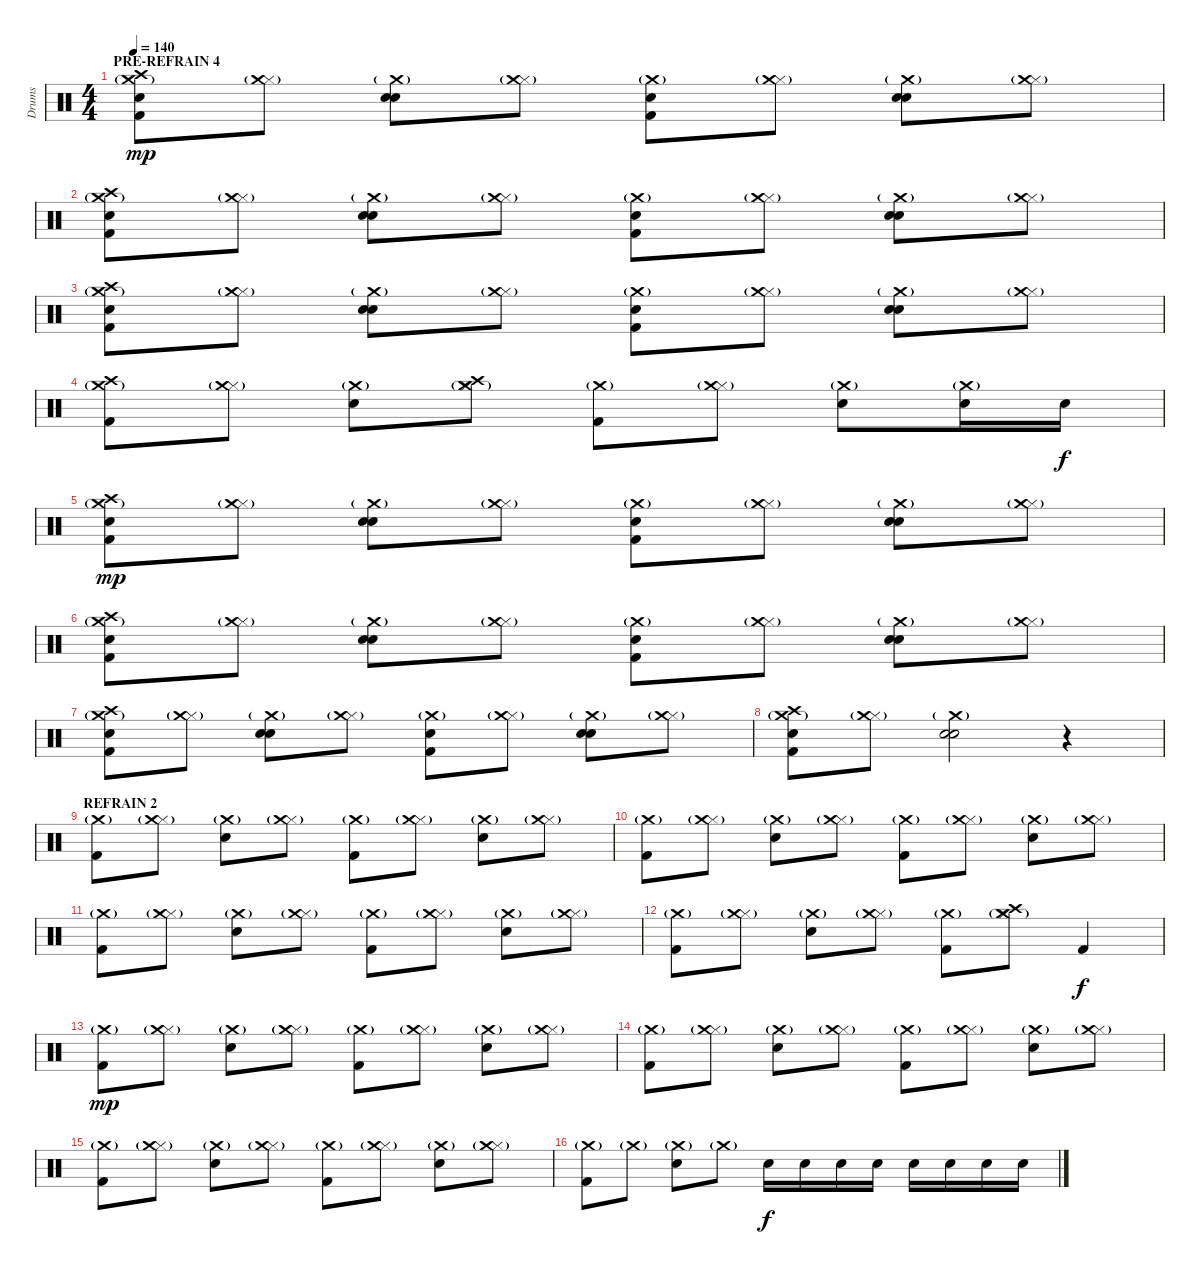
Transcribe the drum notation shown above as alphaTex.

\track ("Drums" "Drums") {instrument percussion}
\staff {score}
\articulation defaults
\ts (4 4)
\section ("" "PRE-REFRAIN 4")
\tempo 140
\clef neutral
\ks c
("Kick (hit) 2" "Hand Clap (hit)" "Crash medium (hit)"{g} "Crash high (hit)").8{dy mp} ("Hi-Hat (closed)" "Crash medium (hit)"{g}).8 ("Electric Snare (hit)" "Hand Clap (hit)" "Crash medium (hit)"{g}).8 ("Hi-Hat (closed)" "Crash medium (hit)"{g}).8 ("Kick (hit) 2" "Hand Clap (hit)" "Crash medium (hit)"{g}).8 ("Hi-Hat (closed)" "Crash medium (hit)"{g}).8 ("Electric Snare (hit)" "Hand Clap (hit)" "Crash medium (hit)"{g}).8 ("Hi-Hat (closed)" "Crash medium (hit)"{g}).8 |
("Kick (hit) 2" "Hand Clap (hit)" "Crash medium (hit)"{g} "Crash high (hit)").8 ("Hi-Hat (closed)" "Crash medium (hit)"{g}).8 ("Electric Snare (hit)" "Hand Clap (hit)" "Crash medium (hit)"{g}).8 ("Hi-Hat (closed)" "Crash medium (hit)"{g}).8 ("Kick (hit) 2" "Hand Clap (hit)" "Crash medium (hit)"{g}).8 ("Hi-Hat (closed)" "Crash medium (hit)"{g}).8 ("Electric Snare (hit)" "Hand Clap (hit)" "Crash medium (hit)"{g}).8 ("Hi-Hat (closed)" "Crash medium (hit)"{g}).8 |
("Kick (hit) 2" "Hand Clap (hit)" "Crash medium (hit)"{g} "Crash high (hit)").8 ("Hi-Hat (closed)" "Crash medium (hit)"{g}).8 ("Electric Snare (hit)" "Hand Clap (hit)" "Crash medium (hit)"{g}).8 ("Hi-Hat (closed)" "Crash medium (hit)"{g}).8 ("Kick (hit) 2" "Hand Clap (hit)" "Crash medium (hit)"{g}).8 ("Hi-Hat (closed)" "Crash medium (hit)"{g}).8 ("Electric Snare (hit)" "Hand Clap (hit)" "Crash medium (hit)"{g}).8 ("Hi-Hat (closed)" "Crash medium (hit)"{g}).8 |
("Kick (hit) 2" "Crash medium (hit)"{g} "Crash high (hit)").8 ("Hi-Hat (closed)" "Crash medium (hit)"{g}).8 ("Electric Snare (hit)" "Crash medium (hit)"{g}).8 ("Hi-Hat (closed)" "Crash medium (hit)"{g} "Crash high (hit)").8 ("Kick (hit) 2" "Crash medium (hit)"{g}).8 ("Hi-Hat (closed)" "Crash medium (hit)"{g}).8 ("Electric Snare (hit)" "Crash medium (hit)"{g}).8 ("Electric Snare (hit)" "Crash medium (hit)"{g}).16 "Electric Snare (hit)".16{dy f} |
("Kick (hit) 2" "Hand Clap (hit)" "Crash medium (hit)"{g} "Crash high (hit)").8{dy mp} ("Hi-Hat (closed)" "Crash medium (hit)"{g}).8 ("Electric Snare (hit)" "Hand Clap (hit)" "Crash medium (hit)"{g}).8 ("Hi-Hat (closed)" "Crash medium (hit)"{g}).8 ("Kick (hit) 2" "Hand Clap (hit)" "Crash medium (hit)"{g}).8 ("Hi-Hat (closed)" "Crash medium (hit)"{g}).8 ("Electric Snare (hit)" "Hand Clap (hit)" "Crash medium (hit)"{g}).8 ("Hi-Hat (closed)" "Crash medium (hit)"{g}).8 |
("Kick (hit) 2" "Hand Clap (hit)" "Crash medium (hit)"{g} "Crash high (hit)").8 ("Hi-Hat (closed)" "Crash medium (hit)"{g}).8 ("Electric Snare (hit)" "Hand Clap (hit)" "Crash medium (hit)"{g}).8 ("Hi-Hat (closed)" "Crash medium (hit)"{g}).8 ("Kick (hit) 2" "Hand Clap (hit)" "Crash medium (hit)"{g}).8 ("Hi-Hat (closed)" "Crash medium (hit)"{g}).8 ("Electric Snare (hit)" "Hand Clap (hit)" "Crash medium (hit)"{g}).8 ("Hi-Hat (closed)" "Crash medium (hit)"{g}).8 |
("Kick (hit) 2" "Hand Clap (hit)" "Crash medium (hit)"{g} "Crash high (hit)").8 ("Hi-Hat (closed)" "Crash medium (hit)"{g}).8 ("Electric Snare (hit)" "Hand Clap (hit)" "Crash medium (hit)"{g}).8 ("Hi-Hat (closed)" "Crash medium (hit)"{g}).8 ("Kick (hit) 2" "Hand Clap (hit)" "Crash medium (hit)"{g}).8 ("Hi-Hat (closed)" "Crash medium (hit)"{g}).8 ("Electric Snare (hit)" "Hand Clap (hit)" "Crash medium (hit)"{g}).8 ("Hi-Hat (closed)" "Crash medium (hit)"{g}).8 |
("Kick (hit) 2" "Hand Clap (hit)" "Crash medium (hit)"{g} "Crash high (hit)").8 ("Hi-Hat (closed)" "Crash medium (hit)"{g}).8 ("Electric Snare (hit)" "Hand Clap (hit)" "Crash medium (hit)"{g}).2 r.4 |
\section ("" "REFRAIN 2")
("Kick (hit) 2" "Crash medium (hit)"{g}).8 ("Hi-Hat (closed)" "Crash medium (hit)"{g}).8 ("Electric Snare (hit)" "Crash medium (hit)"{g}).8 ("Hi-Hat (closed)" "Crash medium (hit)"{g}).8 ("Kick (hit) 2" "Crash medium (hit)"{g}).8 ("Hi-Hat (closed)" "Crash medium (hit)"{g}).8 ("Electric Snare (hit)" "Crash medium (hit)"{g}).8 ("Hi-Hat (closed)" "Crash medium (hit)"{g}).8 |
("Kick (hit) 2" "Crash medium (hit)"{g}).8 ("Hi-Hat (closed)" "Crash medium (hit)"{g}).8 ("Electric Snare (hit)" "Crash medium (hit)"{g}).8 ("Hi-Hat (closed)" "Crash medium (hit)"{g}).8 ("Kick (hit) 2" "Crash medium (hit)"{g}).8 ("Hi-Hat (closed)" "Crash medium (hit)"{g}).8 ("Electric Snare (hit)" "Crash medium (hit)"{g}).8 ("Hi-Hat (closed)" "Crash medium (hit)"{g}).8 |
("Kick (hit) 2" "Crash medium (hit)"{g}).8 ("Hi-Hat (closed)" "Crash medium (hit)"{g}).8 ("Electric Snare (hit)" "Crash medium (hit)"{g}).8 ("Hi-Hat (closed)" "Crash medium (hit)"{g}).8 ("Kick (hit) 2" "Crash medium (hit)"{g}).8 ("Hi-Hat (closed)" "Crash medium (hit)"{g}).8 ("Electric Snare (hit)" "Crash medium (hit)"{g}).8 ("Hi-Hat (closed)" "Crash medium (hit)"{g}).8 |
("Kick (hit) 2" "Crash medium (hit)"{g}).8 ("Hi-Hat (closed)" "Crash medium (hit)"{g}).8 ("Electric Snare (hit)" "Crash medium (hit)"{g}).8 ("Hi-Hat (closed)" "Crash medium (hit)"{g}).8 ("Kick (hit) 2" "Crash medium (hit)"{g}).8 ("Hi-Hat (closed)" "Crash medium (hit)"{g} "Crash high (hit)").8 "Kick (hit) 2".4{dy f} |
("Kick (hit) 2" "Crash medium (hit)"{g}).8{dy mp} ("Hi-Hat (closed)" "Crash medium (hit)"{g}).8 ("Electric Snare (hit)" "Crash medium (hit)"{g}).8 ("Hi-Hat (closed)" "Crash medium (hit)"{g}).8 ("Kick (hit) 2" "Crash medium (hit)"{g}).8 ("Hi-Hat (closed)" "Crash medium (hit)"{g}).8 ("Electric Snare (hit)" "Crash medium (hit)"{g}).8 ("Hi-Hat (closed)" "Crash medium (hit)"{g}).8 |
("Kick (hit) 2" "Crash medium (hit)"{g}).8 ("Hi-Hat (closed)" "Crash medium (hit)"{g}).8 ("Electric Snare (hit)" "Crash medium (hit)"{g}).8 ("Hi-Hat (closed)" "Crash medium (hit)"{g}).8 ("Kick (hit) 2" "Crash medium (hit)"{g}).8 ("Hi-Hat (closed)" "Crash medium (hit)"{g}).8 ("Electric Snare (hit)" "Crash medium (hit)"{g}).8 ("Hi-Hat (closed)" "Crash medium (hit)"{g}).8 |
("Kick (hit) 2" "Crash medium (hit)"{g}).8 ("Hi-Hat (closed)" "Crash medium (hit)"{g}).8 ("Electric Snare (hit)" "Crash medium (hit)"{g}).8 ("Hi-Hat (closed)" "Crash medium (hit)"{g}).8 ("Kick (hit) 2" "Crash medium (hit)"{g}).8 ("Hi-Hat (closed)" "Crash medium (hit)"{g}).8 ("Electric Snare (hit)" "Crash medium (hit)"{g}).8 ("Hi-Hat (closed)" "Crash medium (hit)"{g}).8 |
("Kick (hit) 2" "Crash medium (hit)"{g}).8 "Crash medium (hit)"{g}.8 ("Electric Snare (hit)" "Crash medium (hit)"{g}).8 "Crash medium (hit)"{g}.8 "Electric Snare (hit)".16{dy f} "Electric Snare (hit)".16 "Electric Snare (hit)".16 "Electric Snare (hit)".16 "Electric Snare (hit)".16 "Electric Snare (hit)".16 "Electric Snare (hit)".16 "Electric Snare (hit)".16
